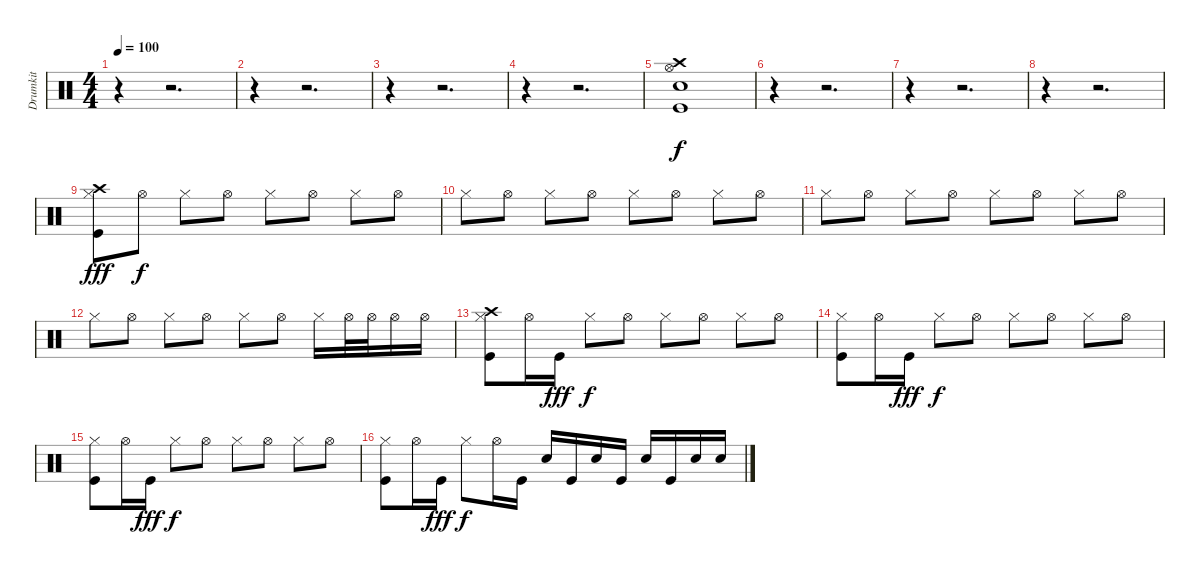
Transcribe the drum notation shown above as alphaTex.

\track ("Drumkit" "Drumkit") {solo instrument percussion}
\staff {score}
\articulation defaults
\ts (4 4)
\tempo 100
\clef neutral
\ks c
r.4{dy f} r.2{d} |
r.4 r.2{d} |
r.4 r.2{d} |
r.4 r.2{d} |
("Crash high (hit)" "Hi-Hat (open)" "Snare (hit) 2" "Kick (hit)").1 |
r.4 r.2{d} |
r.4 r.2{d} |
r.4 r.2{d} |
("Crash high (hit)" "Hi-Hat (closed)" "Kick (hit)").8{dy fff} "Hi-Hat (open)".8{dy f} "Hi-Hat (closed)".8 "Hi-Hat (open)".8 "Hi-Hat (closed)".8 "Hi-Hat (open)".8 "Hi-Hat (closed)".8 "Hi-Hat (open)".8 |
"Hi-Hat (closed)".8 "Hi-Hat (open)".8 "Hi-Hat (closed)".8 "Hi-Hat (open)".8 "Hi-Hat (closed)".8 "Hi-Hat (open)".8 "Hi-Hat (closed)".8 "Hi-Hat (open)".8 |
"Hi-Hat (closed)".8 "Hi-Hat (open)".8 "Hi-Hat (closed)".8 "Hi-Hat (open)".8 "Hi-Hat (closed)".8 "Hi-Hat (open)".8 "Hi-Hat (closed)".8 "Hi-Hat (open)".8 |
"Hi-Hat (closed)".8 "Hi-Hat (open)".8 "Hi-Hat (closed)".8 "Hi-Hat (open)".8 "Hi-Hat (closed)".8 "Hi-Hat (open)".8 "Hi-Hat (closed)".16 "Hi-Hat (open)".32 "Hi-Hat (open)".32 "Hi-Hat (open)".16 "Hi-Hat (open)".16 |
("Crash high (hit)" "Hi-Hat (closed)" "Kick (hit)").8 "Hi-Hat (open)".16 "Kick (hit)".16{dy fff} "Hi-Hat (closed)".8{dy f} "Hi-Hat (open)".8 "Hi-Hat (closed)".8 "Hi-Hat (open)".8 "Hi-Hat (closed)".8 "Hi-Hat (open)".8 |
("Hi-Hat (closed)" "Kick (hit)").8 "Hi-Hat (open)".16 "Kick (hit)".16{dy fff} "Hi-Hat (closed)".8{dy f} "Hi-Hat (open)".8 "Hi-Hat (closed)".8 "Hi-Hat (open)".8 "Hi-Hat (closed)".8 "Hi-Hat (open)".8 |
("Hi-Hat (closed)" "Kick (hit)").8 "Hi-Hat (open)".16 "Kick (hit)".16{dy fff} "Hi-Hat (closed)".8{dy f} "Hi-Hat (open)".8 "Hi-Hat (closed)".8 "Hi-Hat (open)".8 "Hi-Hat (closed)".8 "Hi-Hat (open)".8 |
("Hi-Hat (closed)" "Kick (hit)").8 "Hi-Hat (open)".16 "Kick (hit)".16{dy fff} "Hi-Hat (closed)".8{dy f} "Hi-Hat (open)".16 "Kick (hit)".16 "Snare (hit) 2".16 "Kick (hit)".16 "Snare (hit) 2".16 "Kick (hit)".16 "Snare (hit) 2".16 "Kick (hit)".16 "Snare (hit) 2".16 "Snare (hit) 2".16
